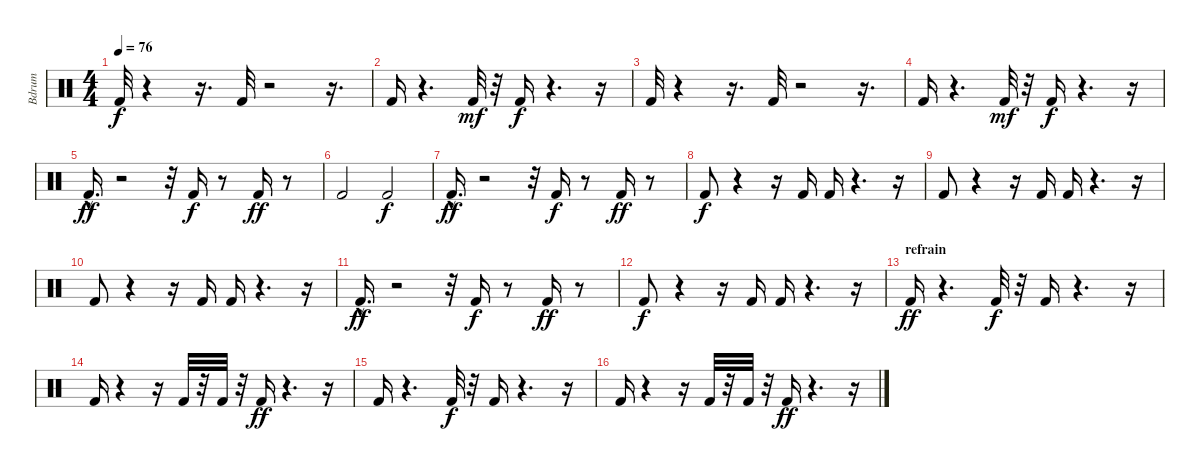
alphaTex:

\track ("Bdrum" "Bdrum") {instrument percussion}
\staff {score}
\articulation defaults
\ts (4 4)
\tempo 76
\clef neutral
\ks c "Kick (hit) 2".32{dy f}
r.4 r.16{d} "Kick (hit) 2".32 r.2 r.16{d} |
"Kick (hit) 2".16 r.4{d} "Kick (hit) 2".32{dy mf} r.32 "Kick (hit) 2".16{dy f} r.4{d} r.16 |
"Kick (hit) 2".32 r.4 r.16{d} "Kick (hit) 2".32 r.2 r.16{d} |
"Kick (hit) 2".16 r.4{d} "Kick (hit) 2".32{dy mf} r.32 "Kick (hit) 2".16{dy f} r.4{d} r.16 |
"Kick (hit) 2"{hac}.16{d dy ff} r.2 r.32 "Kick (hit) 2".16{dy f} r.8 "Kick (hit) 2".16{dy ff} r.8 |
"Kick (hit) 2".2 "Kick (hit) 2".2{dy f} |
"Kick (hit) 2"{hac}.16{d dy ff} r.2 r.32 "Kick (hit) 2".16{dy f} r.8 "Kick (hit) 2".16{dy ff} r.8 |
"Kick (hit) 2".8{dy f} r.4 r.16 "Kick (hit) 2".16 "Kick (hit) 2".16 r.4{d} r.16 |
"Kick (hit) 2".8 r.4 r.16 "Kick (hit) 2".16 "Kick (hit) 2".16 r.4{d} r.16 |
"Kick (hit) 2".8 r.4 r.16 "Kick (hit) 2".16 "Kick (hit) 2".16 r.4{d} r.16 |
"Kick (hit) 2"{hac}.16{d dy ff} r.2 r.32 "Kick (hit) 2".16{dy f} r.8 "Kick (hit) 2".16{dy ff} r.8 |
"Kick (hit) 2".8{dy f} r.4 r.16 "Kick (hit) 2".16 "Kick (hit) 2".16 r.4{d} r.16 |
\section ("" "refrain")
"Kick (hit) 2".16{dy ff} r.4{d} "Kick (hit) 2".32{dy f} r.32 "Kick (hit) 2".16 r.4{d} r.16 |
"Kick (hit) 2".16 r.4 r.16 "Kick (hit) 2".32 r.32 "Kick (hit) 2".32 r.32 "Kick (hit) 2".16{dy ff} r.4{d} r.16 |
"Kick (hit) 2".16 r.4{d} "Kick (hit) 2".32{dy f} r.32 "Kick (hit) 2".16 r.4{d} r.16 |
"Kick (hit) 2".16 r.4 r.16 "Kick (hit) 2".32 r.32 "Kick (hit) 2".32 r.32 "Kick (hit) 2".16{dy ff} r.4{d} r.16
